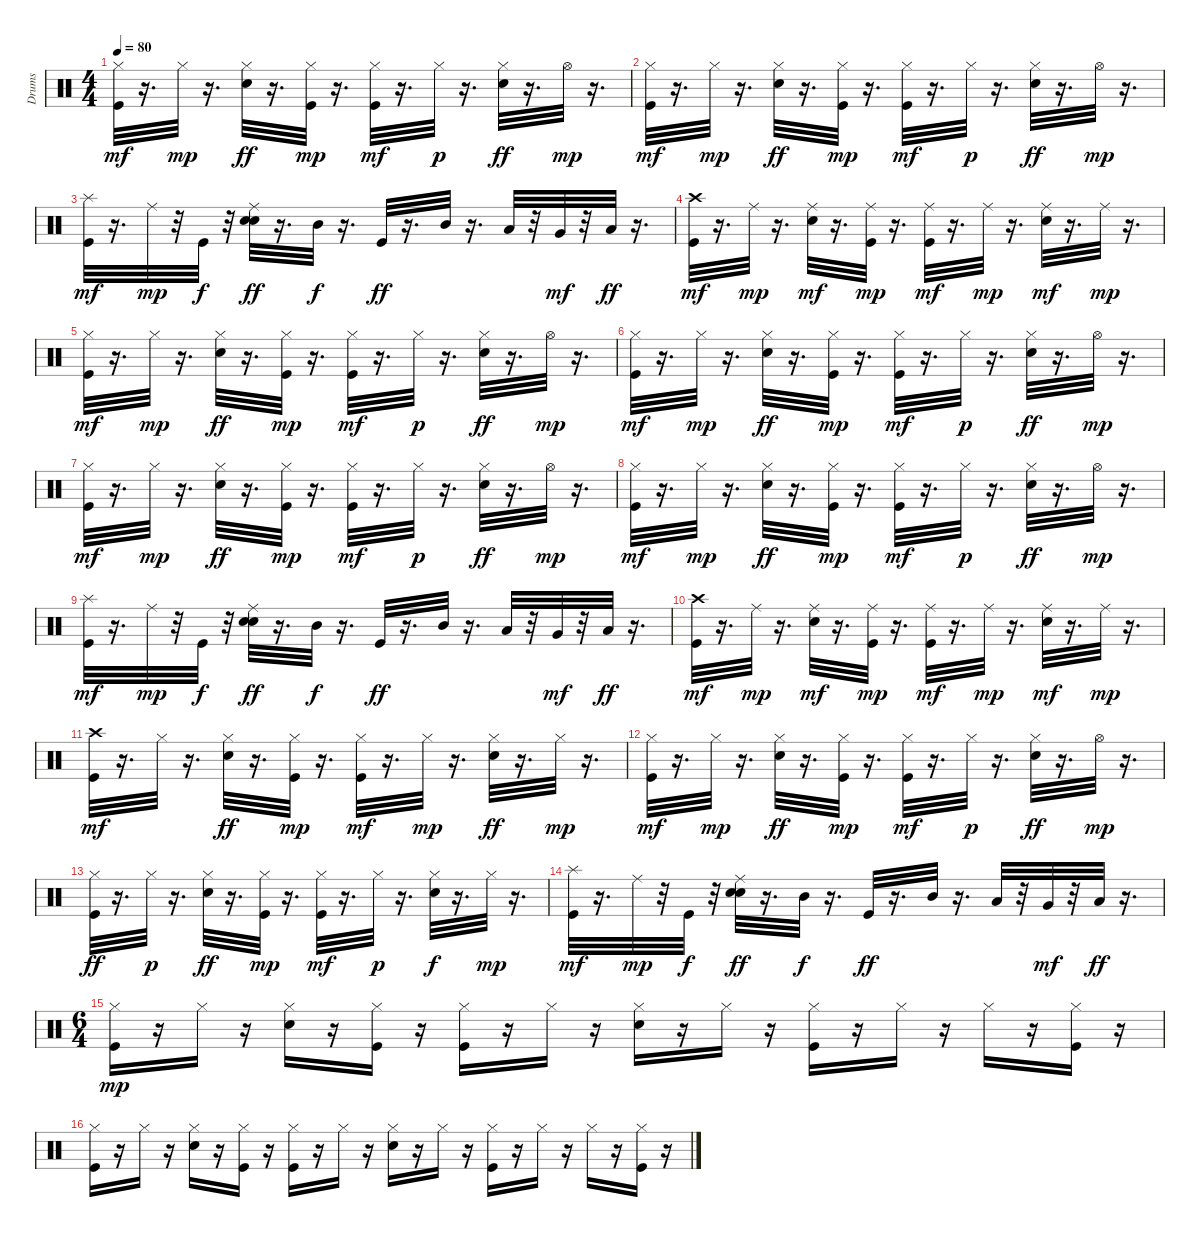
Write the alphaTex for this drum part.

\track ("Drums" "Drums") {instrument percussion}
\staff {score}
\articulation defaults
\ts (4 4)
\tempo 80
\clef neutral
\ks c
("Kick (hit)" "Hi-Hat (closed)").32{dy mf} r.16{d} "Hi-Hat (closed)".32{dy mp} r.16{d} ("Electric Snare (hit)" "Hi-Hat (closed)").32{dy ff} r.16{d} ("Kick (hit)" "Hi-Hat (closed)").32{dy mp} r.16{d} ("Kick (hit)" "Hi-Hat (closed)").32{dy mf} r.16{d} "Hi-Hat (closed)".32{dy p} r.16{d} ("Electric Snare (hit)" "Hi-Hat (closed)").32{dy ff} r.16{d} "Hi-Hat (open)".32{dy mp} r.16{d} |
("Kick (hit)" "Hi-Hat (closed)").32{dy mf} r.16{d} "Hi-Hat (closed)".32{dy mp} r.16{d} ("Electric Snare (hit)" "Hi-Hat (closed)").32{dy ff} r.16{d} ("Kick (hit)" "Hi-Hat (closed)").32{dy mp} r.16{d} ("Kick (hit)" "Hi-Hat (closed)").32{dy mf} r.16{d} "Hi-Hat (closed)".32{dy p} r.16{d} ("Electric Snare (hit)" "Hi-Hat (closed)").32{dy ff} r.16{d} "Hi-Hat (open)".32{dy mp} r.16{d} |
("Kick (hit)" "Splash (hit)").32{dy mf} r.16{d} "Ride (middle)".32{dy mp} r.32 "Kick (hit)".32{dy f} r.32 ("Snare (hit) 2" "Ride (middle)" "Electric Snare (hit)").32{dy ff} r.16{d} "Mid Tom (hit)".32{dy f} r.16{d} "Kick (hit)".32{dy ff} r.16{d} "Mid Tom (hit)".32 r.16{d} "Low Tom (hit)".32 r.32 "Very Low Tom (hit)".32{dy mf} r.32 "Low Floor Tom (hit)".32{dy ff} r.16{d} |
("Kick (hit)" "Crash high (hit)").32{dy mf} r.16{d} "Ride (middle)".32{dy mp} r.16{d} ("Electric Snare (hit)" "Ride (middle)").32{dy mf} r.16{d} ("Kick (hit)" "Ride (middle)").32{dy mp} r.16{d} ("Kick (hit)" "Ride (middle)").32{dy mf} r.16{d} "Ride (middle)".32{dy mp} r.16{d} ("Electric Snare (hit)" "Ride (middle)").32{dy mf} r.16{d} "Ride (middle)".32{dy mp} r.16{d} |
("Kick (hit)" "Hi-Hat (closed)").32{dy mf} r.16{d} "Hi-Hat (closed)".32{dy mp} r.16{d} ("Electric Snare (hit)" "Hi-Hat (closed)").32{dy ff} r.16{d} ("Kick (hit)" "Hi-Hat (closed)").32{dy mp} r.16{d} ("Kick (hit)" "Hi-Hat (closed)").32{dy mf} r.16{d} "Hi-Hat (closed)".32{dy p} r.16{d} ("Electric Snare (hit)" "Hi-Hat (closed)").32{dy ff} r.16{d} "Hi-Hat (open)".32{dy mp} r.16{d} |
("Kick (hit)" "Hi-Hat (closed)").32{dy mf} r.16{d} "Hi-Hat (closed)".32{dy mp} r.16{d} ("Electric Snare (hit)" "Hi-Hat (closed)").32{dy ff} r.16{d} ("Kick (hit)" "Hi-Hat (closed)").32{dy mp} r.16{d} ("Kick (hit)" "Hi-Hat (closed)").32{dy mf} r.16{d} "Hi-Hat (closed)".32{dy p} r.16{d} ("Electric Snare (hit)" "Hi-Hat (closed)").32{dy ff} r.16{d} "Hi-Hat (open)".32{dy mp} r.16{d} |
("Kick (hit)" "Hi-Hat (closed)").32{dy mf} r.16{d} "Hi-Hat (closed)".32{dy mp} r.16{d} ("Electric Snare (hit)" "Hi-Hat (closed)").32{dy ff} r.16{d} ("Kick (hit)" "Hi-Hat (closed)").32{dy mp} r.16{d} ("Kick (hit)" "Hi-Hat (closed)").32{dy mf} r.16{d} "Hi-Hat (closed)".32{dy p} r.16{d} ("Electric Snare (hit)" "Hi-Hat (closed)").32{dy ff} r.16{d} "Hi-Hat (open)".32{dy mp} r.16{d} |
("Kick (hit)" "Hi-Hat (closed)").32{dy mf} r.16{d} "Hi-Hat (closed)".32{dy mp} r.16{d} ("Electric Snare (hit)" "Hi-Hat (closed)").32{dy ff} r.16{d} ("Kick (hit)" "Hi-Hat (closed)").32{dy mp} r.16{d} ("Kick (hit)" "Hi-Hat (closed)").32{dy mf} r.16{d} "Hi-Hat (closed)".32{dy p} r.16{d} ("Electric Snare (hit)" "Hi-Hat (closed)").32{dy ff} r.16{d} "Hi-Hat (open)".32{dy mp} r.16{d} |
("Kick (hit)" "Splash (hit)").32{dy mf} r.16{d} "Ride (middle)".32{dy mp} r.32 "Kick (hit)".32{dy f} r.32 ("Snare (hit) 2" "Ride (middle)" "Electric Snare (hit)").32{dy ff} r.16{d} "Mid Tom (hit)".32{dy f} r.16{d} "Kick (hit)".32{dy ff} r.16{d} "Mid Tom (hit)".32 r.16{d} "Low Tom (hit)".32 r.32 "Very Low Tom (hit)".32{dy mf} r.32 "Low Floor Tom (hit)".32{dy ff} r.16{d} |
("Kick (hit)" "Crash high (hit)").32{dy mf} r.16{d} "Ride (middle)".32{dy mp} r.16{d} ("Electric Snare (hit)" "Ride (middle)").32{dy mf} r.16{d} ("Kick (hit)" "Ride (middle)").32{dy mp} r.16{d} ("Kick (hit)" "Ride (middle)").32{dy mf} r.16{d} "Ride (middle)".32{dy mp} r.16{d} ("Electric Snare (hit)" "Ride (middle)").32{dy mf} r.16{d} "Ride (middle)".32{dy mp} r.16{d} |
("Kick (hit)" "Crash high (hit)").32{dy mf} r.16{d} "Hi-Hat (closed)".32 r.16{d} ("Electric Snare (hit)" "Hi-Hat (closed)").32{dy ff} r.16{d} ("Kick (hit)" "Hi-Hat (closed)").32{dy mp} r.16{d} ("Kick (hit)" "Hi-Hat (closed)").32{dy mf} r.16{d} "Hi-Hat (closed)".32{dy mp} r.16{d} ("Electric Snare (hit)" "Hi-Hat (closed)").32{dy ff} r.16{d} "Hi-Hat (closed)".32{dy mp} r.16{d} |
("Kick (hit)" "Hi-Hat (closed)").32{dy mf} r.16{d} "Hi-Hat (closed)".32{dy mp} r.16{d} ("Electric Snare (hit)" "Hi-Hat (closed)").32{dy ff} r.16{d} ("Kick (hit)" "Hi-Hat (closed)").32{dy mp} r.16{d} ("Kick (hit)" "Hi-Hat (closed)").32{dy mf} r.16{d} "Hi-Hat (closed)".32{dy p} r.16{d} ("Electric Snare (hit)" "Hi-Hat (closed)").32{dy ff} r.16{d} "Hi-Hat (open)".32{dy mp} r.16{d} |
("Kick (hit)" "Hi-Hat (closed)").32{dy ff} r.16{d} "Hi-Hat (closed)".32{dy p} r.16{d} ("Electric Snare (hit)" "Hi-Hat (closed)").32{dy ff} r.16{d} ("Kick (hit)" "Hi-Hat (closed)").32{dy mp} r.16{d} ("Kick (hit)" "Hi-Hat (closed)").32{dy mf} r.16{d} "Hi-Hat (closed)".32{dy p} r.16{d} ("Electric Snare (hit)" "Hi-Hat (closed)").32{dy f} r.16{d} "Hi-Hat (closed)".32{dy mp} r.16{d} |
("Kick (hit)" "Splash (hit)").32{dy mf} r.16{d} "Ride (middle)".32{dy mp} r.32 "Kick (hit)".32{dy f} r.32 ("Snare (hit) 2" "Ride (middle)" "Electric Snare (hit)").32{dy ff} r.16{d} "Mid Tom (hit)".32{dy f} r.16{d} "Kick (hit)".32{dy ff} r.16{d} "Mid Tom (hit)".32 r.16{d} "Low Tom (hit)".32 r.32 "Very Low Tom (hit)".32{dy mf} r.32 "Low Floor Tom (hit)".32{dy ff} r.16{d} |
\ts (6 4)
("Kick (hit)" "Hi-Hat (closed)").16{dy mp} r.16 "Hi-Hat (closed)".16 r.16 ("Electric Snare (hit)" "Hi-Hat (closed)").16 r.16 ("Kick (hit)" "Hi-Hat (closed)").16 r.16 ("Kick (hit)" "Hi-Hat (closed)").16 r.16 "Hi-Hat (closed)".16 r.16 ("Electric Snare (hit)" "Hi-Hat (closed)").16 r.16 "Hi-Hat (closed)".16 r.16 ("Kick (hit)" "Hi-Hat (closed)").16 r.16 "Hi-Hat (closed)".16 r.16 "Hi-Hat (closed)".16 r.16 ("Kick (hit)" "Hi-Hat (closed)").16 r.16 |
("Kick (hit)" "Hi-Hat (closed)").16 r.16 "Hi-Hat (closed)".16 r.16 ("Electric Snare (hit)" "Hi-Hat (closed)").16 r.16 ("Kick (hit)" "Hi-Hat (closed)").16 r.16 ("Kick (hit)" "Hi-Hat (closed)").16 r.16 "Hi-Hat (closed)".16 r.16 ("Electric Snare (hit)" "Hi-Hat (closed)").16 r.16 "Hi-Hat (closed)".16 r.16 ("Kick (hit)" "Hi-Hat (closed)").16 r.16 "Hi-Hat (closed)".16 r.16 "Hi-Hat (closed)".16 r.16 ("Kick (hit)" "Hi-Hat (closed)").16 r.16
